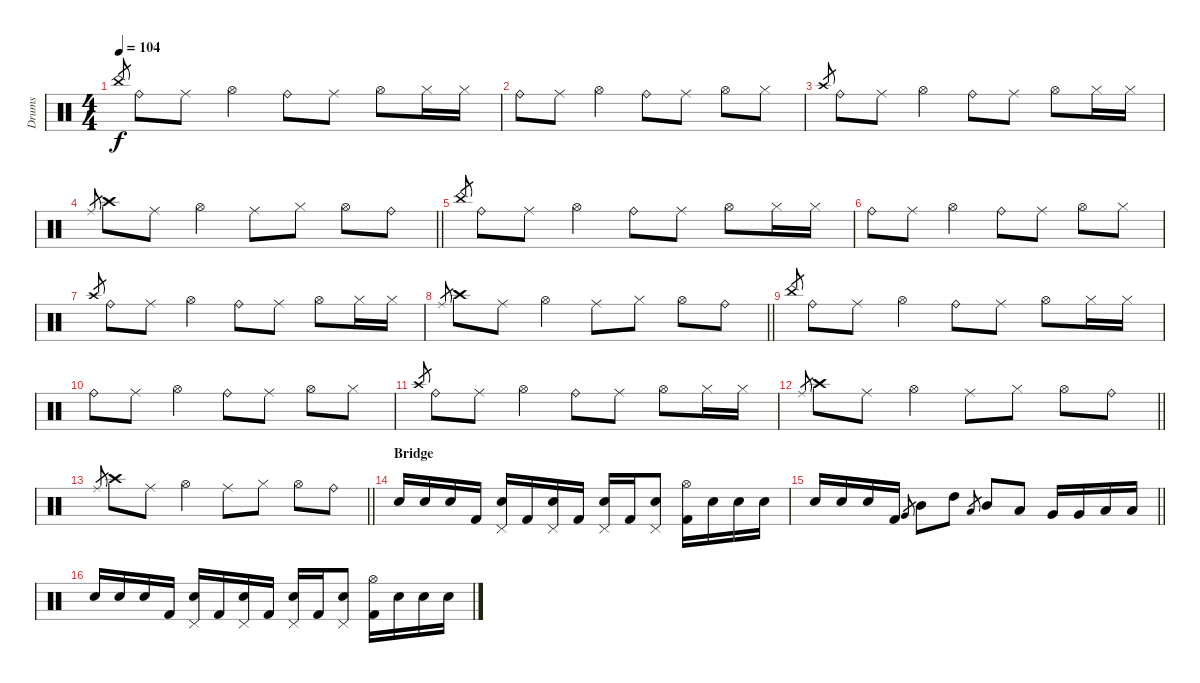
\track ("Drums" "Drums") {instrument percussion}
\staff {score}
\articulation defaults
\ts (4 4)
\tempo 104
\clef neutral
\ks c "China (hit)".8{gr dy f} "Ride (bell)".8 "Ride (middle)".8 "Hi-Hat (open)".4 "Ride (bell)".8 "Ride (middle)".8 "Hi-Hat (open)".8 "Hi-Hat (closed)".16 "Hi-Hat (closed)".16
|
"Ride (bell)".8 "Ride (middle)".8 "Hi-Hat (open)".4 "Ride (bell)".8 "Ride (middle)".8 "Hi-Hat (open)".8 "Hi-Hat (closed)".8 |
"Crash high (hit)".8{gr} "Ride (bell)".8 "Ride (middle)".8 "Hi-Hat (open)".4 "Ride (bell)".8 "Ride (middle)".8 "Hi-Hat (open)".8 "Hi-Hat (closed)".16 "Hi-Hat (closed)".16 |
\barLineRight lightlight "Ride (middle)".8{gr} "Crash high (hit)".8 "Ride (middle)".8 "Hi-Hat (open)".4 "Ride (middle)".8 "Hi-Hat (closed)".8 "Hi-Hat (open)".8 "Ride (bell)".8
|
"China (hit)".8{gr} "Ride (bell)".8 "Ride (middle)".8 "Hi-Hat (open)".4 "Ride (bell)".8 "Ride (middle)".8 "Hi-Hat (open)".8 "Hi-Hat (closed)".16 "Hi-Hat (closed)".16 |
"Ride (bell)".8 "Ride (middle)".8 "Hi-Hat (open)".4 "Ride (bell)".8 "Ride (middle)".8 "Hi-Hat (open)".8 "Hi-Hat (closed)".8 |
"Crash high (hit)".8{gr} "Ride (bell)".8 "Ride (middle)".8 "Hi-Hat (open)".4 "Ride (bell)".8 "Ride (middle)".8 "Hi-Hat (open)".8 "Hi-Hat (closed)".16 "Hi-Hat (closed)".16 |
\barLineRight lightlight "Ride (middle)".8{gr} "Crash high (hit)".8 "Ride (middle)".8 "Hi-Hat (open)".4 "Ride (middle)".8 "Hi-Hat (closed)".8 "Hi-Hat (open)".8 "Ride (bell)".8
|
"China (hit)".8{gr} "Ride (bell)".8 "Ride (middle)".8 "Hi-Hat (open)".4 "Ride (bell)".8 "Ride (middle)".8 "Hi-Hat (open)".8 "Hi-Hat (closed)".16 "Hi-Hat (closed)".16 |
"Ride (bell)".8 "Ride (middle)".8 "Hi-Hat (open)".4 "Ride (bell)".8 "Ride (middle)".8 "Hi-Hat (open)".8 "Hi-Hat (closed)".8 |
"Crash high (hit)".8{gr} "Ride (bell)".8 "Ride (middle)".8 "Hi-Hat (open)".4 "Ride (bell)".8 "Ride (middle)".8 "Hi-Hat (open)".8 "Hi-Hat (closed)".16 "Hi-Hat (closed)".16 |
\barLineRight lightlight "Ride (middle)".8{gr} "Crash high (hit)".8 "Ride (middle)".8 "Hi-Hat (open)".4 "Ride (middle)".8 "Hi-Hat (closed)".8 "Hi-Hat (open)".8 "Ride (bell)".8
|
\barLineRight lightlight "Ride (middle)".8{gr} "Crash high (hit)".8 "Ride (middle)".8 "Hi-Hat (open)".4 "Ride (middle)".8 "Hi-Hat (closed)".8 "Hi-Hat (open)".8 "Ride (bell)".8
|
\section ("" "Bridge")
"Snare (hit) 2".16 "Snare (hit) 2".16 "Snare (hit) 2".16 "Kick (hit) 2".16 ("Pedal Hi-Hat (hit)" "Snare (hit) 2").16 "Kick (hit) 2".16 ("Pedal Hi-Hat (hit)" "Snare (hit) 2").16 "Kick (hit) 2".16 ("Pedal Hi-Hat (hit)" "Snare (hit) 2").16 "Kick (hit) 2".16 ("Pedal Hi-Hat (hit)" "Snare (hit) 2").8 ("Hi-Hat (open)" "Kick (hit) 2").16 "Snare (hit) 2".16 "Snare (hit) 2".16 "Snare (hit) 2".16 |
\barLineRight lightlight "Snare (hit) 2".16 "Snare (hit) 2".16 "Snare (hit) 2".16 "Kick (hit) 2".16 "Very Low Tom (hit)".8{gr} "Mid Tom (hit)".8 "High Tom (hit)".8 "Low Tom (hit)".8{gr} "Mid Tom (hit)".8 "Low Tom (hit)".8 "Very Low Tom (hit)".16 "Very Low Tom (hit)".16 "Low Floor Tom (hit)".16 "Low Floor Tom (hit)".16
|
"Snare (hit) 2".16 "Snare (hit) 2".16 "Snare (hit) 2".16 "Kick (hit) 2".16 ("Pedal Hi-Hat (hit)" "Snare (hit) 2").16 "Kick (hit) 2".16 ("Pedal Hi-Hat (hit)" "Snare (hit) 2").16 "Kick (hit) 2".16 ("Pedal Hi-Hat (hit)" "Snare (hit) 2").16 "Kick (hit) 2".16 ("Pedal Hi-Hat (hit)" "Snare (hit) 2").8 ("Hi-Hat (open)" "Kick (hit) 2").16 "Snare (hit) 2".16 "Snare (hit) 2".16 "Snare (hit) 2".16
